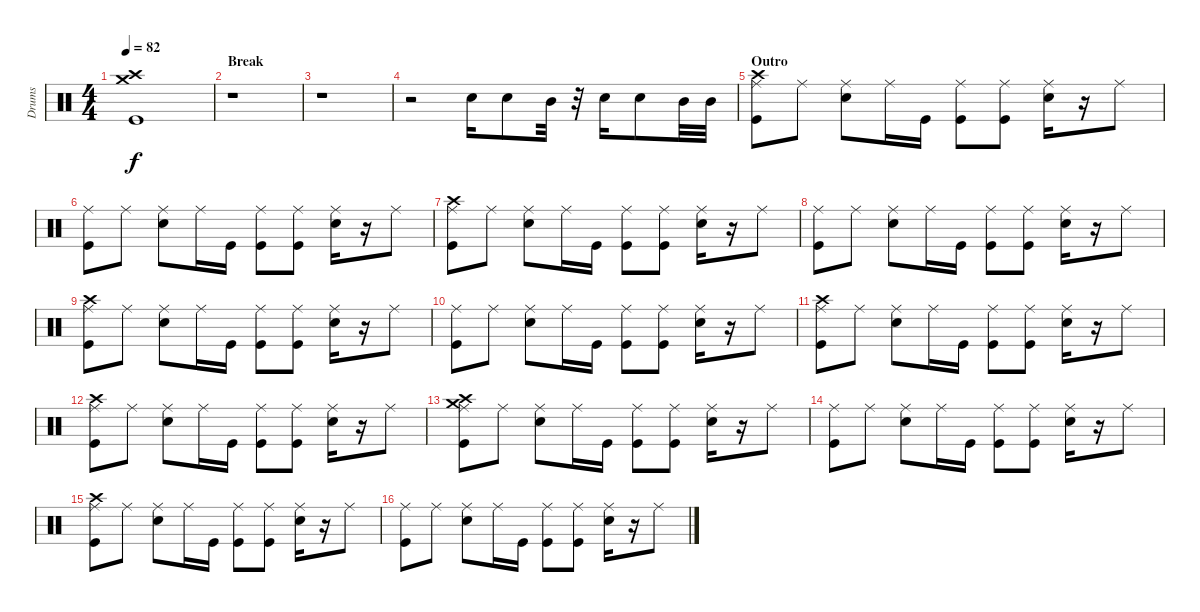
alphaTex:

\track ("Drums" "Drums") {instrument percussion}
\staff {score}
\articulation defaults
\ts (4 4)
\tempo 82
\clef neutral
\ks c
("Kick (hit)" "Crash high (hit)" "Crash medium (hit)").1{dy f} |
\section ("" "Break")
r.1 |
r.1 |
r.2 "Electric Snare (hit)".16 "Electric Snare (hit)".8 "Mid Tom (hit)".32 r.32 "Electric Snare (hit)".16 "Electric Snare (hit)".8 "Mid Tom (hit)".32 "Mid Tom (hit)".32 |
\section ("" "Outro")
("Kick (hit)" "Crash high (hit)" "Ride (middle)").8 "Ride (middle)".8 ("Electric Snare (hit)" "Ride (middle)").8 "Ride (middle)".16 "Kick (hit)".16 ("Kick (hit)" "Ride (middle)").8 ("Kick (hit)" "Ride (middle)").8 ("Electric Snare (hit)" "Ride (middle)").16 r.16 "Ride (middle)".8 |
("Kick (hit)" "Ride (middle)").8 "Ride (middle)".8 ("Electric Snare (hit)" "Ride (middle)").8 "Ride (middle)".16 "Kick (hit)".16 ("Kick (hit)" "Ride (middle)").8 ("Kick (hit)" "Ride (middle)").8 ("Electric Snare (hit)" "Ride (middle)").16 r.16 "Ride (middle)".8 |
("Kick (hit)" "Crash high (hit)" "Ride (middle)").8 "Ride (middle)".8 ("Electric Snare (hit)" "Ride (middle)").8 "Ride (middle)".16 "Kick (hit)".16 ("Kick (hit)" "Ride (middle)").8 ("Kick (hit)" "Ride (middle)").8 ("Electric Snare (hit)" "Ride (middle)").16 r.16 "Ride (middle)".8 |
("Kick (hit)" "Ride (middle)").8 "Ride (middle)".8 ("Electric Snare (hit)" "Ride (middle)").8 "Ride (middle)".16 "Kick (hit)".16 ("Kick (hit)" "Ride (middle)").8 ("Kick (hit)" "Ride (middle)").8 ("Electric Snare (hit)" "Ride (middle)").16 r.16 "Ride (middle)".8 |
("Kick (hit)" "Crash high (hit)" "Ride (middle)").8 "Ride (middle)".8 ("Electric Snare (hit)" "Ride (middle)").8 "Ride (middle)".16 "Kick (hit)".16 ("Kick (hit)" "Ride (middle)").8 ("Kick (hit)" "Ride (middle)").8 ("Electric Snare (hit)" "Ride (middle)").16 r.16 "Ride (middle)".8 |
("Kick (hit)" "Ride (middle)").8 "Ride (middle)".8 ("Electric Snare (hit)" "Ride (middle)").8 "Ride (middle)".16 "Kick (hit)".16 ("Kick (hit)" "Ride (middle)").8 ("Kick (hit)" "Ride (middle)").8 ("Electric Snare (hit)" "Ride (middle)").16 r.16 "Ride (middle)".8 |
("Kick (hit)" "Crash high (hit)" "Ride (middle)").8 "Ride (middle)".8 ("Electric Snare (hit)" "Ride (middle)").8 "Ride (middle)".16 "Kick (hit)".16 ("Kick (hit)" "Ride (middle)").8 ("Kick (hit)" "Ride (middle)").8 ("Electric Snare (hit)" "Ride (middle)").16 r.16 "Ride (middle)".8 |
("Kick (hit)" "Crash high (hit)" "Ride (middle)").8 "Ride (middle)".8 ("Electric Snare (hit)" "Ride (middle)").8 "Ride (middle)".16 "Kick (hit)".16 ("Kick (hit)" "Ride (middle)").8 ("Kick (hit)" "Ride (middle)").8 ("Electric Snare (hit)" "Ride (middle)").16 r.16 "Ride (middle)".8 |
("Kick (hit)" "Crash medium (hit)" "Crash high (hit)" "Ride (middle)").8 "Ride (middle)".8 ("Electric Snare (hit)" "Ride (middle)").8 "Ride (middle)".16 "Kick (hit)".16 ("Kick (hit)" "Ride (middle)").8 ("Kick (hit)" "Ride (middle)").8 ("Electric Snare (hit)" "Ride (middle)").16 r.16 "Ride (middle)".8 |
("Kick (hit)" "Ride (middle)").8 "Ride (middle)".8 ("Electric Snare (hit)" "Ride (middle)").8 "Ride (middle)".16 "Kick (hit)".16 ("Kick (hit)" "Ride (middle)").8 ("Kick (hit)" "Ride (middle)").8 ("Electric Snare (hit)" "Ride (middle)").16 r.16 "Ride (middle)".8 |
("Kick (hit)" "Crash high (hit)" "Ride (middle)").8 "Ride (middle)".8 ("Electric Snare (hit)" "Ride (middle)").8 "Ride (middle)".16 "Kick (hit)".16 ("Kick (hit)" "Ride (middle)").8 ("Kick (hit)" "Ride (middle)").8 ("Electric Snare (hit)" "Ride (middle)").16 r.16 "Ride (middle)".8 |
("Kick (hit)" "Ride (middle)").8 "Ride (middle)".8 ("Electric Snare (hit)" "Ride (middle)").8 "Ride (middle)".16 "Kick (hit)".16 ("Kick (hit)" "Ride (middle)").8 ("Kick (hit)" "Ride (middle)").8 ("Electric Snare (hit)" "Ride (middle)").16 r.16 "Ride (middle)".8
